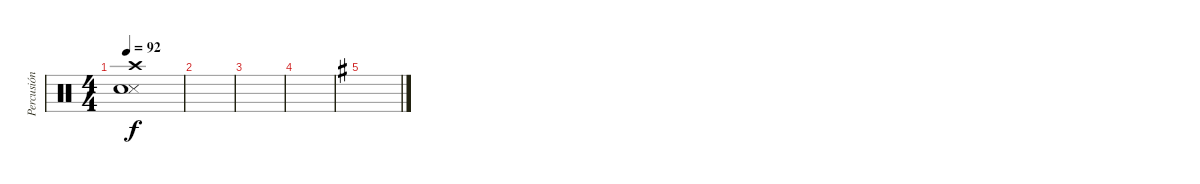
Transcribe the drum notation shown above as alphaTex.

\track ("Percusión Pista Auxiliar" "Percusión ") {instrument percussion}
\staff {score}
\articulation defaults
\ts (4 4)
\tempo 92
\clef neutral
\ks c
("Snare (side stick) 3" "Snare (hit) 2" "Crash high (hit)").1{dy f volume 16} |
|
|
|
\ks g
